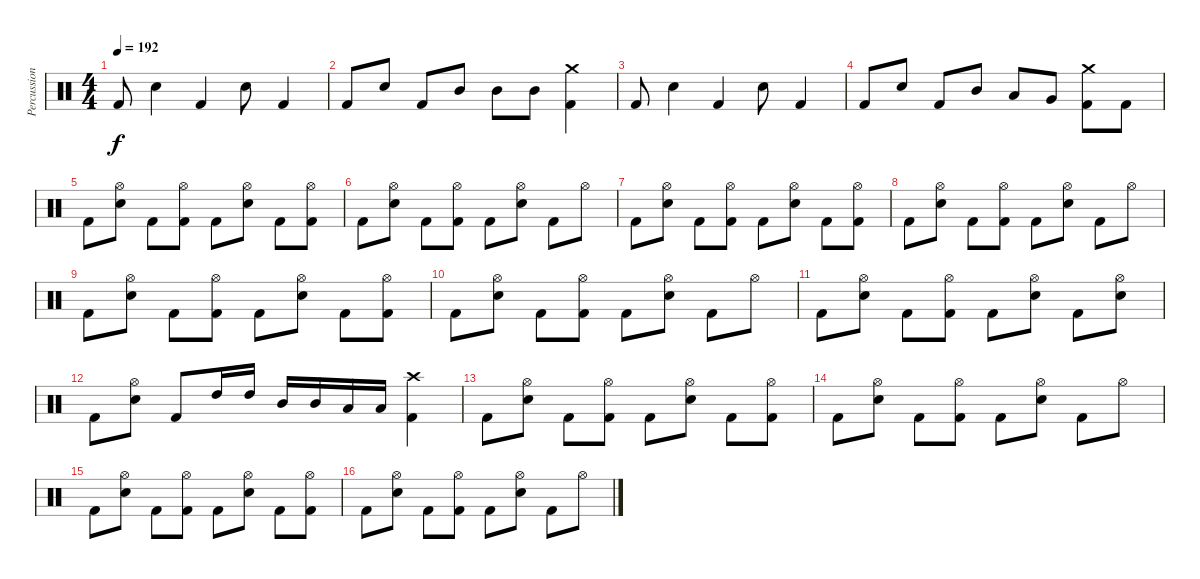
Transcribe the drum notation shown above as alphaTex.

\track ("Percussion" "Percussion") {instrument percussion}
\staff {score}
\articulation defaults
\ts (4 4)
\tempo 192
\clef neutral
\ks c "Kick (hit) 2".8{dy f} "Electric Snare (hit)".4 "Kick (hit) 2".4 "Electric Snare (hit)".8 "Kick (hit) 2".4
|
"Kick (hit) 2".8 "Electric Snare (hit)".8 "Kick (hit) 2".8 "Mid Tom (hit)".8 "Mid Tom (hit)".8 "Mid Tom (hit)".8 ("Crash medium (hit)" "Kick (hit) 2").4 |
"Kick (hit) 2".8 "Electric Snare (hit)".4 "Kick (hit) 2".4 "Electric Snare (hit)".8 "Kick (hit) 2".4 |
"Kick (hit) 2".8 "Electric Snare (hit)".8 "Kick (hit) 2".8 "Mid Tom (hit)".8 "Low Tom (hit)".8 "Very Low Tom (hit)".8 ("Crash medium (hit)" "Kick (hit) 2").8 "Kick (hit) 2".8 |
"Kick (hit) 2".8 ("Hi-Hat (open)" "Electric Snare (hit)").8 "Kick (hit) 2".8 ("Hi-Hat (open)" "Kick (hit) 2").8 "Kick (hit) 2".8 ("Hi-Hat (open)" "Electric Snare (hit)").8 "Kick (hit) 2".8 ("Hi-Hat (open)" "Kick (hit) 2").8 |
"Kick (hit) 2".8 ("Hi-Hat (open)" "Electric Snare (hit)").8 "Kick (hit) 2".8 ("Hi-Hat (open)" "Kick (hit) 2").8 "Kick (hit) 2".8 ("Hi-Hat (open)" "Electric Snare (hit)").8 "Kick (hit) 2".8 "Hi-Hat (open)".8 |
"Kick (hit) 2".8 ("Hi-Hat (open)" "Electric Snare (hit)").8 "Kick (hit) 2".8 ("Hi-Hat (open)" "Kick (hit) 2").8 "Kick (hit) 2".8 ("Hi-Hat (open)" "Electric Snare (hit)").8 "Kick (hit) 2".8 ("Hi-Hat (open)" "Kick (hit) 2").8 |
"Kick (hit) 2".8 ("Hi-Hat (open)" "Electric Snare (hit)").8 "Kick (hit) 2".8 ("Hi-Hat (open)" "Kick (hit) 2").8 "Kick (hit) 2".8 ("Hi-Hat (open)" "Electric Snare (hit)").8 "Kick (hit) 2".8 "Hi-Hat (open)".8 |
"Kick (hit) 2".8 ("Hi-Hat (open)" "Electric Snare (hit)").8 "Kick (hit) 2".8 ("Hi-Hat (open)" "Kick (hit) 2").8 "Kick (hit) 2".8 ("Hi-Hat (open)" "Electric Snare (hit)").8 "Kick (hit) 2".8 ("Hi-Hat (open)" "Kick (hit) 2").8 |
"Kick (hit) 2".8 ("Hi-Hat (open)" "Electric Snare (hit)").8 "Kick (hit) 2".8 ("Hi-Hat (open)" "Kick (hit) 2").8 "Kick (hit) 2".8 ("Hi-Hat (open)" "Electric Snare (hit)").8 "Kick (hit) 2".8 "Hi-Hat (open)".8 |
"Kick (hit) 2".8 ("Hi-Hat (open)" "Electric Snare (hit)").8 "Kick (hit) 2".8 ("Hi-Hat (open)" "Kick (hit) 2").8 "Kick (hit) 2".8 ("Hi-Hat (open)" "Electric Snare (hit)").8 "Kick (hit) 2".8 ("Hi-Hat (open)" "Electric Snare (hit)").8 |
"Kick (hit) 2".8 ("Hi-Hat (open)" "Electric Snare (hit)").8 "Kick (hit) 2".8 "High Tom (hit)".16 "High Tom (hit)".16 "Mid Tom (hit)".16 "Mid Tom (hit)".16 "Low Tom (hit)".16 "Low Tom (hit)".16 ("Crash high (hit)" "Kick (hit) 2").4 |
"Kick (hit) 2".8 ("Hi-Hat (open)" "Electric Snare (hit)").8 "Kick (hit) 2".8 ("Hi-Hat (open)" "Kick (hit) 2").8 "Kick (hit) 2".8 ("Hi-Hat (open)" "Electric Snare (hit)").8 "Kick (hit) 2".8 ("Hi-Hat (open)" "Kick (hit) 2").8 |
"Kick (hit) 2".8 ("Hi-Hat (open)" "Electric Snare (hit)").8 "Kick (hit) 2".8 ("Hi-Hat (open)" "Kick (hit) 2").8 "Kick (hit) 2".8 ("Hi-Hat (open)" "Electric Snare (hit)").8 "Kick (hit) 2".8 "Hi-Hat (open)".8 |
"Kick (hit) 2".8 ("Hi-Hat (open)" "Electric Snare (hit)").8 "Kick (hit) 2".8 ("Hi-Hat (open)" "Kick (hit) 2").8 "Kick (hit) 2".8 ("Hi-Hat (open)" "Electric Snare (hit)").8 "Kick (hit) 2".8 ("Hi-Hat (open)" "Kick (hit) 2").8 |
"Kick (hit) 2".8 ("Hi-Hat (open)" "Electric Snare (hit)").8 "Kick (hit) 2".8 ("Hi-Hat (open)" "Kick (hit) 2").8 "Kick (hit) 2".8 ("Hi-Hat (open)" "Electric Snare (hit)").8 "Kick (hit) 2".8 "Hi-Hat (open)".8
